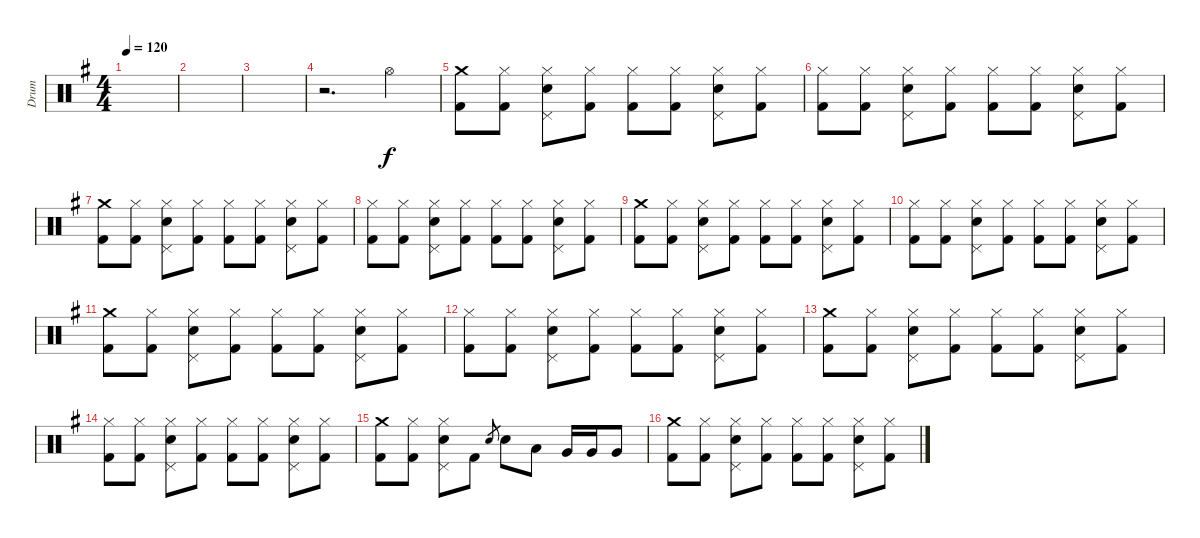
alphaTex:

\track ("Drum" "Drum") {instrument percussion}
\staff {score}
\articulation defaults
\ts (4 4)
\tempo 120
\clef neutral
\ks g
|
|
|
r.2{d} "Hi-Hat (open)".4 |
("Crash medium (hit)" "Kick (hit) 2").8 ("Hi-Hat (closed)" "Kick (hit) 2").8 ("Pedal Hi-Hat (hit)" "Hi-Hat (closed)" "Electric Snare (hit)").8 ("Hi-Hat (closed)" "Kick (hit) 2").8 ("Hi-Hat (closed)" "Kick (hit) 2").8 ("Hi-Hat (closed)" "Kick (hit) 2").8 ("Pedal Hi-Hat (hit)" "Hi-Hat (closed)" "Electric Snare (hit)").8 ("Hi-Hat (closed)" "Kick (hit) 2").8 |
("Hi-Hat (closed)" "Kick (hit) 2").8 ("Hi-Hat (closed)" "Kick (hit) 2").8 ("Pedal Hi-Hat (hit)" "Hi-Hat (closed)" "Electric Snare (hit)").8 ("Hi-Hat (closed)" "Kick (hit) 2").8 ("Hi-Hat (closed)" "Kick (hit) 2").8 ("Hi-Hat (closed)" "Kick (hit) 2").8 ("Pedal Hi-Hat (hit)" "Hi-Hat (closed)" "Electric Snare (hit)").8 ("Hi-Hat (closed)" "Kick (hit) 2").8 |
("Crash medium (hit)" "Kick (hit) 2").8 ("Hi-Hat (closed)" "Kick (hit) 2").8 ("Pedal Hi-Hat (hit)" "Hi-Hat (closed)" "Electric Snare (hit)").8 ("Hi-Hat (closed)" "Kick (hit) 2").8 ("Hi-Hat (closed)" "Kick (hit) 2").8 ("Hi-Hat (closed)" "Kick (hit) 2").8 ("Pedal Hi-Hat (hit)" "Hi-Hat (closed)" "Electric Snare (hit)").8 ("Hi-Hat (closed)" "Kick (hit) 2").8 |
("Hi-Hat (closed)" "Kick (hit) 2").8 ("Hi-Hat (closed)" "Kick (hit) 2").8 ("Pedal Hi-Hat (hit)" "Hi-Hat (closed)" "Electric Snare (hit)").8 ("Hi-Hat (closed)" "Kick (hit) 2").8 ("Hi-Hat (closed)" "Kick (hit) 2").8 ("Hi-Hat (closed)" "Kick (hit) 2").8 ("Pedal Hi-Hat (hit)" "Hi-Hat (closed)" "Electric Snare (hit)").8 ("Hi-Hat (closed)" "Kick (hit) 2").8 |
("Crash medium (hit)" "Kick (hit) 2").8 ("Hi-Hat (closed)" "Kick (hit) 2").8 ("Pedal Hi-Hat (hit)" "Hi-Hat (closed)" "Electric Snare (hit)").8 ("Hi-Hat (closed)" "Kick (hit) 2").8 ("Hi-Hat (closed)" "Kick (hit) 2").8 ("Hi-Hat (closed)" "Kick (hit) 2").8 ("Pedal Hi-Hat (hit)" "Hi-Hat (closed)" "Electric Snare (hit)").8 ("Hi-Hat (closed)" "Kick (hit) 2").8 |
("Hi-Hat (closed)" "Kick (hit) 2").8 ("Hi-Hat (closed)" "Kick (hit) 2").8 ("Pedal Hi-Hat (hit)" "Hi-Hat (closed)" "Electric Snare (hit)").8 ("Hi-Hat (closed)" "Kick (hit) 2").8 ("Hi-Hat (closed)" "Kick (hit) 2").8 ("Hi-Hat (closed)" "Kick (hit) 2").8 ("Pedal Hi-Hat (hit)" "Hi-Hat (closed)" "Electric Snare (hit)").8 ("Hi-Hat (closed)" "Kick (hit) 2").8 |
("Crash medium (hit)" "Kick (hit) 2").8 ("Hi-Hat (closed)" "Kick (hit) 2").8 ("Pedal Hi-Hat (hit)" "Hi-Hat (closed)" "Electric Snare (hit)").8 ("Hi-Hat (closed)" "Kick (hit) 2").8 ("Hi-Hat (closed)" "Kick (hit) 2").8 ("Hi-Hat (closed)" "Kick (hit) 2").8 ("Pedal Hi-Hat (hit)" "Hi-Hat (closed)" "Electric Snare (hit)").8 ("Hi-Hat (closed)" "Kick (hit) 2").8 |
("Hi-Hat (closed)" "Kick (hit) 2").8 ("Hi-Hat (closed)" "Kick (hit) 2").8 ("Pedal Hi-Hat (hit)" "Hi-Hat (closed)" "Electric Snare (hit)").8 ("Hi-Hat (closed)" "Kick (hit) 2").8 ("Hi-Hat (closed)" "Kick (hit) 2").8 ("Hi-Hat (closed)" "Kick (hit) 2").8 ("Pedal Hi-Hat (hit)" "Hi-Hat (closed)" "Electric Snare (hit)").8 ("Hi-Hat (closed)" "Kick (hit) 2").8 |
("Crash medium (hit)" "Kick (hit) 2").8 ("Hi-Hat (closed)" "Kick (hit) 2").8 ("Pedal Hi-Hat (hit)" "Hi-Hat (closed)" "Electric Snare (hit)").8 ("Hi-Hat (closed)" "Kick (hit) 2").8 ("Hi-Hat (closed)" "Kick (hit) 2").8 ("Hi-Hat (closed)" "Kick (hit) 2").8 ("Pedal Hi-Hat (hit)" "Hi-Hat (closed)" "Electric Snare (hit)").8 ("Hi-Hat (closed)" "Kick (hit) 2").8 |
("Hi-Hat (closed)" "Kick (hit) 2").8 ("Hi-Hat (closed)" "Kick (hit) 2").8 ("Pedal Hi-Hat (hit)" "Hi-Hat (closed)" "Electric Snare (hit)").8 ("Hi-Hat (closed)" "Kick (hit) 2").8 ("Hi-Hat (closed)" "Kick (hit) 2").8 ("Hi-Hat (closed)" "Kick (hit) 2").8 ("Pedal Hi-Hat (hit)" "Hi-Hat (closed)" "Electric Snare (hit)").8 ("Hi-Hat (closed)" "Kick (hit) 2").8 |
("Crash medium (hit)" "Kick (hit) 2").8 ("Hi-Hat (closed)" "Kick (hit) 2").8 ("Pedal Hi-Hat (hit)" "Hi-Hat (closed)" "Electric Snare (hit)").8 "Kick (hit) 2".8 "Electric Snare (hit)".8{gr} "Electric Snare (hit)".8 "Low Tom (hit)".8 "Very Low Tom (hit)".16 "Very Low Tom (hit)".16 "Very Low Tom (hit)".8 |
("Crash medium (hit)" "Kick (hit) 2").8 ("Hi-Hat (closed)" "Kick (hit) 2").8 ("Pedal Hi-Hat (hit)" "Hi-Hat (closed)" "Electric Snare (hit)").8 ("Hi-Hat (closed)" "Kick (hit) 2").8 ("Hi-Hat (closed)" "Kick (hit) 2").8 ("Hi-Hat (closed)" "Kick (hit) 2").8 ("Pedal Hi-Hat (hit)" "Hi-Hat (closed)" "Electric Snare (hit)").8 ("Hi-Hat (closed)" "Kick (hit) 2").8
